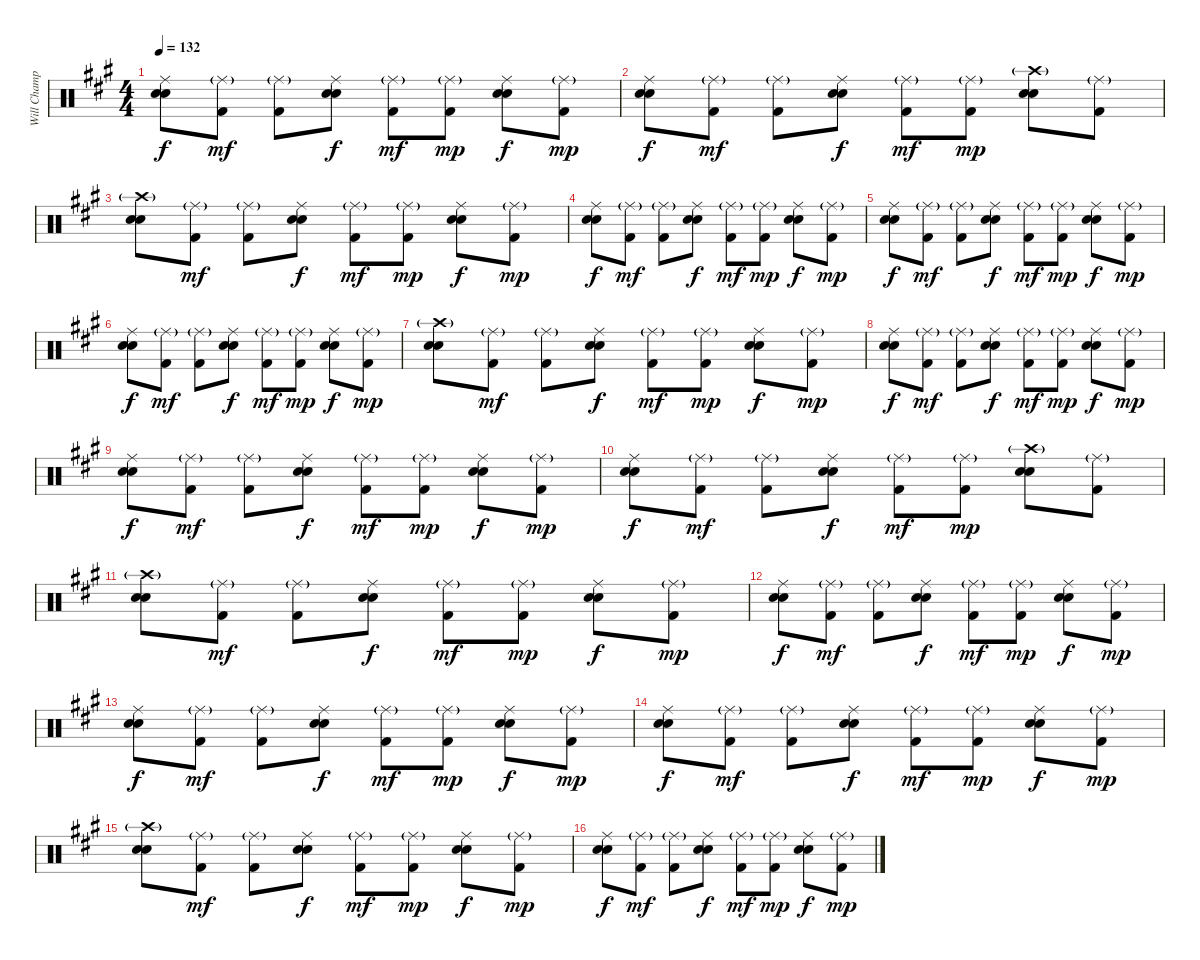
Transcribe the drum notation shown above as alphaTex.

\track ("Will Champion-Drums(percussion)" "Will Champ") {instrument percussion}
\staff {score}
\articulation defaults
\ts (4 4)
\tempo 132
\clef neutral
\ks a
("Ride (middle)" "Electric Snare (hit)" "Snare (hit) 2").8{dy f} ("Ride (middle)"{g} "Kick (hit) 2").8{dy mf} ("Ride (middle)"{g} "Kick (hit) 2").8 ("Ride (middle)" "Electric Snare (hit)" "Snare (hit) 2").8{dy f} ("Ride (middle)"{g} "Kick (hit) 2").8{dy mf} ("Ride (middle)"{g} "Kick (hit) 2").8{dy mp} ("Ride (middle)" "Electric Snare (hit)" "Snare (hit) 2").8{dy f} ("Ride (middle)"{g} "Kick (hit) 2").8{dy mp} |
("Ride (middle)" "Electric Snare (hit)" "Snare (hit) 2").8{dy f} ("Ride (middle)"{g} "Kick (hit) 2").8{dy mf} ("Ride (middle)"{g} "Kick (hit) 2").8 ("Ride (middle)" "Electric Snare (hit)" "Snare (hit) 2").8{dy f} ("Ride (middle)"{g} "Kick (hit) 2").8{dy mf} ("Ride (middle)"{g} "Kick (hit) 2").8{dy mp} ("Crash high (hit)"{g} "Electric Snare (hit)" "Snare (hit) 2").8 ("Ride (middle)"{g} "Kick (hit) 2").8 |
("Crash high (hit)"{g} "Electric Snare (hit)" "Snare (hit) 2").8 ("Ride (middle)"{g} "Kick (hit) 2").8{dy mf} ("Ride (middle)"{g} "Kick (hit) 2").8 ("Ride (middle)" "Electric Snare (hit)" "Snare (hit) 2").8{dy f} ("Ride (middle)"{g} "Kick (hit) 2").8{dy mf} ("Ride (middle)"{g} "Kick (hit) 2").8{dy mp} ("Ride (middle)" "Electric Snare (hit)" "Snare (hit) 2").8{dy f} ("Ride (middle)"{g} "Kick (hit) 2").8{dy mp} |
("Ride (middle)" "Electric Snare (hit)" "Snare (hit) 2").8{dy f} ("Ride (middle)"{g} "Kick (hit) 2").8{dy mf} ("Ride (middle)"{g} "Kick (hit) 2").8 ("Ride (middle)" "Electric Snare (hit)" "Snare (hit) 2").8{dy f} ("Ride (middle)"{g} "Kick (hit) 2").8{dy mf} ("Ride (middle)"{g} "Kick (hit) 2").8{dy mp} ("Ride (middle)" "Electric Snare (hit)" "Snare (hit) 2").8{dy f} ("Ride (middle)"{g} "Kick (hit) 2").8{dy mp} |
("Ride (middle)" "Electric Snare (hit)" "Snare (hit) 2").8{dy f} ("Ride (middle)"{g} "Kick (hit) 2").8{dy mf} ("Ride (middle)"{g} "Kick (hit) 2").8 ("Ride (middle)" "Electric Snare (hit)" "Snare (hit) 2").8{dy f} ("Ride (middle)"{g} "Kick (hit) 2").8{dy mf} ("Ride (middle)"{g} "Kick (hit) 2").8{dy mp} ("Ride (middle)" "Electric Snare (hit)" "Snare (hit) 2").8{dy f} ("Ride (middle)"{g} "Kick (hit) 2").8{dy mp} |
("Ride (middle)" "Electric Snare (hit)" "Snare (hit) 2").8{dy f} ("Ride (middle)"{g} "Kick (hit) 2").8{dy mf} ("Ride (middle)"{g} "Kick (hit) 2").8 ("Ride (middle)" "Electric Snare (hit)" "Snare (hit) 2").8{dy f} ("Ride (middle)"{g} "Kick (hit) 2").8{dy mf} ("Ride (middle)"{g} "Kick (hit) 2").8{dy mp} ("Ride (middle)" "Electric Snare (hit)" "Snare (hit) 2").8{dy f} ("Ride (middle)"{g} "Kick (hit) 2").8{dy mp} |
("Crash high (hit)"{g} "Electric Snare (hit)" "Snare (hit) 2").8 ("Ride (middle)"{g} "Kick (hit) 2").8{dy mf} ("Ride (middle)"{g} "Kick (hit) 2").8 ("Ride (middle)" "Electric Snare (hit)" "Snare (hit) 2").8{dy f} ("Ride (middle)"{g} "Kick (hit) 2").8{dy mf} ("Ride (middle)"{g} "Kick (hit) 2").8{dy mp} ("Ride (middle)" "Electric Snare (hit)" "Snare (hit) 2").8{dy f} ("Ride (middle)"{g} "Kick (hit) 2").8{dy mp} |
("Ride (middle)" "Electric Snare (hit)" "Snare (hit) 2").8{dy f} ("Ride (middle)"{g} "Kick (hit) 2").8{dy mf} ("Ride (middle)"{g} "Kick (hit) 2").8 ("Ride (middle)" "Electric Snare (hit)" "Snare (hit) 2").8{dy f} ("Ride (middle)"{g} "Kick (hit) 2").8{dy mf} ("Ride (middle)"{g} "Kick (hit) 2").8{dy mp} ("Ride (middle)" "Electric Snare (hit)" "Snare (hit) 2").8{dy f} ("Ride (middle)"{g} "Kick (hit) 2").8{dy mp} |
("Ride (middle)" "Electric Snare (hit)" "Snare (hit) 2").8{dy f} ("Ride (middle)"{g} "Kick (hit) 2").8{dy mf} ("Ride (middle)"{g} "Kick (hit) 2").8 ("Ride (middle)" "Electric Snare (hit)" "Snare (hit) 2").8{dy f} ("Ride (middle)"{g} "Kick (hit) 2").8{dy mf} ("Ride (middle)"{g} "Kick (hit) 2").8{dy mp} ("Ride (middle)" "Electric Snare (hit)" "Snare (hit) 2").8{dy f} ("Ride (middle)"{g} "Kick (hit) 2").8{dy mp} |
("Ride (middle)" "Electric Snare (hit)" "Snare (hit) 2").8{dy f} ("Ride (middle)"{g} "Kick (hit) 2").8{dy mf} ("Ride (middle)"{g} "Kick (hit) 2").8 ("Ride (middle)" "Electric Snare (hit)" "Snare (hit) 2").8{dy f} ("Ride (middle)"{g} "Kick (hit) 2").8{dy mf} ("Ride (middle)"{g} "Kick (hit) 2").8{dy mp} ("Crash high (hit)"{g} "Electric Snare (hit)" "Snare (hit) 2").8 ("Ride (middle)"{g} "Kick (hit) 2").8 |
("Crash high (hit)"{g} "Electric Snare (hit)" "Snare (hit) 2").8 ("Ride (middle)"{g} "Kick (hit) 2").8{dy mf} ("Ride (middle)"{g} "Kick (hit) 2").8 ("Ride (middle)" "Electric Snare (hit)" "Snare (hit) 2").8{dy f} ("Ride (middle)"{g} "Kick (hit) 2").8{dy mf} ("Ride (middle)"{g} "Kick (hit) 2").8{dy mp} ("Ride (middle)" "Electric Snare (hit)" "Snare (hit) 2").8{dy f} ("Ride (middle)"{g} "Kick (hit) 2").8{dy mp} |
("Ride (middle)" "Electric Snare (hit)" "Snare (hit) 2").8{dy f} ("Ride (middle)"{g} "Kick (hit) 2").8{dy mf} ("Ride (middle)"{g} "Kick (hit) 2").8 ("Ride (middle)" "Electric Snare (hit)" "Snare (hit) 2").8{dy f} ("Ride (middle)"{g} "Kick (hit) 2").8{dy mf} ("Ride (middle)"{g} "Kick (hit) 2").8{dy mp} ("Ride (middle)" "Electric Snare (hit)" "Snare (hit) 2").8{dy f} ("Ride (middle)"{g} "Kick (hit) 2").8{dy mp} |
("Ride (middle)" "Electric Snare (hit)" "Snare (hit) 2").8{dy f} ("Ride (middle)"{g} "Kick (hit) 2").8{dy mf} ("Ride (middle)"{g} "Kick (hit) 2").8 ("Ride (middle)" "Electric Snare (hit)" "Snare (hit) 2").8{dy f} ("Ride (middle)"{g} "Kick (hit) 2").8{dy mf} ("Ride (middle)"{g} "Kick (hit) 2").8{dy mp} ("Ride (middle)" "Electric Snare (hit)" "Snare (hit) 2").8{dy f} ("Ride (middle)"{g} "Kick (hit) 2").8{dy mp} |
("Ride (middle)" "Electric Snare (hit)" "Snare (hit) 2").8{dy f} ("Ride (middle)"{g} "Kick (hit) 2").8{dy mf} ("Ride (middle)"{g} "Kick (hit) 2").8 ("Ride (middle)" "Electric Snare (hit)" "Snare (hit) 2").8{dy f} ("Ride (middle)"{g} "Kick (hit) 2").8{dy mf} ("Ride (middle)"{g} "Kick (hit) 2").8{dy mp} ("Ride (middle)" "Electric Snare (hit)" "Snare (hit) 2").8{dy f} ("Ride (middle)"{g} "Kick (hit) 2").8{dy mp} |
("Crash high (hit)"{g} "Electric Snare (hit)" "Snare (hit) 2").8 ("Ride (middle)"{g} "Kick (hit) 2").8{dy mf} ("Ride (middle)"{g} "Kick (hit) 2").8 ("Ride (middle)" "Electric Snare (hit)" "Snare (hit) 2").8{dy f} ("Ride (middle)"{g} "Kick (hit) 2").8{dy mf} ("Ride (middle)"{g} "Kick (hit) 2").8{dy mp} ("Ride (middle)" "Electric Snare (hit)" "Snare (hit) 2").8{dy f} ("Ride (middle)"{g} "Kick (hit) 2").8{dy mp} |
("Ride (middle)" "Electric Snare (hit)" "Snare (hit) 2").8{dy f} ("Ride (middle)"{g} "Kick (hit) 2").8{dy mf} ("Ride (middle)"{g} "Kick (hit) 2").8 ("Ride (middle)" "Electric Snare (hit)" "Snare (hit) 2").8{dy f} ("Ride (middle)"{g} "Kick (hit) 2").8{dy mf} ("Ride (middle)"{g} "Kick (hit) 2").8{dy mp} ("Ride (middle)" "Electric Snare (hit)" "Snare (hit) 2").8{dy f} ("Ride (middle)"{g} "Kick (hit) 2").8{dy mp}
